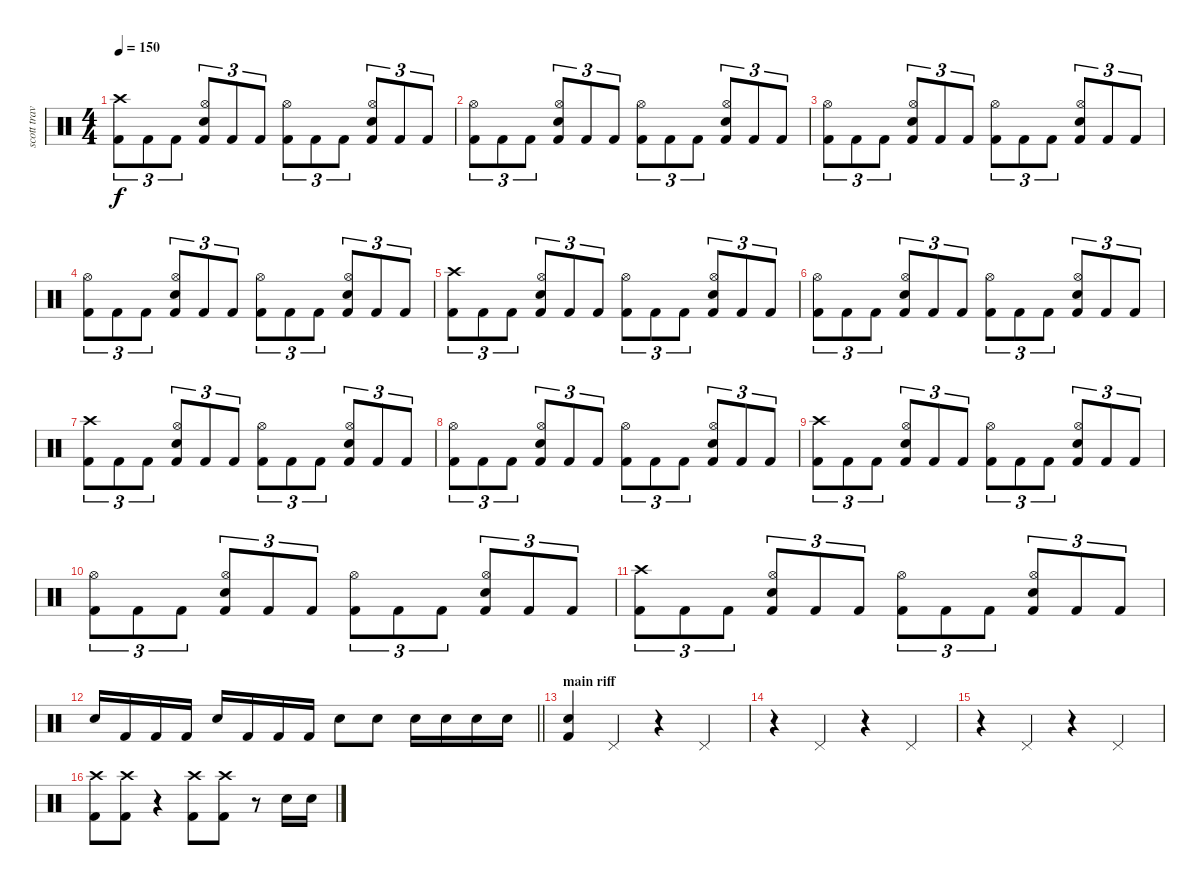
\track ("scott travis" "scott trav") {instrument percussion}
\staff {score}
\articulation defaults
\ts (4 4)
\tempo 150
\clef neutral
\ks c
("Crash high (hit)" "Kick (hit) 2").8{tu (3 2) dy f} "Kick (hit) 2".8{tu (3 2)} "Kick (hit) 2".8{tu (3 2)} ("Hi-Hat (open)" "Snare (hit) 2" "Kick (hit) 2").8{tu (3 2)} "Kick (hit) 2".8{tu (3 2)} "Kick (hit) 2".8{tu (3 2)} ("Hi-Hat (open)" "Kick (hit) 2").8{tu (3 2)} "Kick (hit) 2".8{tu (3 2)} "Kick (hit) 2".8{tu (3 2)} ("Hi-Hat (open)" "Snare (hit) 2" "Kick (hit) 2").8{tu (3 2)} "Kick (hit) 2".8{tu (3 2)} "Kick (hit) 2".8{tu (3 2)} |
("Hi-Hat (open)" "Kick (hit) 2").8{tu (3 2)} "Kick (hit) 2".8{tu (3 2)} "Kick (hit) 2".8{tu (3 2)} ("Hi-Hat (open)" "Snare (hit) 2" "Kick (hit) 2").8{tu (3 2)} "Kick (hit) 2".8{tu (3 2)} "Kick (hit) 2".8{tu (3 2)} ("Hi-Hat (open)" "Kick (hit) 2").8{tu (3 2)} "Kick (hit) 2".8{tu (3 2)} "Kick (hit) 2".8{tu (3 2)} ("Hi-Hat (open)" "Snare (hit) 2" "Kick (hit) 2").8{tu (3 2)} "Kick (hit) 2".8{tu (3 2)} "Kick (hit) 2".8{tu (3 2)} |
("Hi-Hat (open)" "Kick (hit) 2").8{tu (3 2)} "Kick (hit) 2".8{tu (3 2)} "Kick (hit) 2".8{tu (3 2)} ("Hi-Hat (open)" "Snare (hit) 2" "Kick (hit) 2").8{tu (3 2)} "Kick (hit) 2".8{tu (3 2)} "Kick (hit) 2".8{tu (3 2)} ("Hi-Hat (open)" "Kick (hit) 2").8{tu (3 2)} "Kick (hit) 2".8{tu (3 2)} "Kick (hit) 2".8{tu (3 2)} ("Hi-Hat (open)" "Snare (hit) 2" "Kick (hit) 2").8{tu (3 2)} "Kick (hit) 2".8{tu (3 2)} "Kick (hit) 2".8{tu (3 2)} |
("Hi-Hat (open)" "Kick (hit) 2").8{tu (3 2)} "Kick (hit) 2".8{tu (3 2)} "Kick (hit) 2".8{tu (3 2)} ("Hi-Hat (open)" "Snare (hit) 2" "Kick (hit) 2").8{tu (3 2)} "Kick (hit) 2".8{tu (3 2)} "Kick (hit) 2".8{tu (3 2)} ("Hi-Hat (open)" "Kick (hit) 2").8{tu (3 2)} "Kick (hit) 2".8{tu (3 2)} "Kick (hit) 2".8{tu (3 2)} ("Hi-Hat (open)" "Snare (hit) 2" "Kick (hit) 2").8{tu (3 2)} "Kick (hit) 2".8{tu (3 2)} "Kick (hit) 2".8{tu (3 2)} |
("Crash high (hit)" "Kick (hit) 2").8{tu (3 2)} "Kick (hit) 2".8{tu (3 2)} "Kick (hit) 2".8{tu (3 2)} ("Hi-Hat (open)" "Snare (hit) 2" "Kick (hit) 2").8{tu (3 2)} "Kick (hit) 2".8{tu (3 2)} "Kick (hit) 2".8{tu (3 2)} ("Hi-Hat (open)" "Kick (hit) 2").8{tu (3 2)} "Kick (hit) 2".8{tu (3 2)} "Kick (hit) 2".8{tu (3 2)} ("Hi-Hat (open)" "Snare (hit) 2" "Kick (hit) 2").8{tu (3 2)} "Kick (hit) 2".8{tu (3 2)} "Kick (hit) 2".8{tu (3 2)} |
("Hi-Hat (open)" "Kick (hit) 2").8{tu (3 2)} "Kick (hit) 2".8{tu (3 2)} "Kick (hit) 2".8{tu (3 2)} ("Hi-Hat (open)" "Snare (hit) 2" "Kick (hit) 2").8{tu (3 2)} "Kick (hit) 2".8{tu (3 2)} "Kick (hit) 2".8{tu (3 2)} ("Hi-Hat (open)" "Kick (hit) 2").8{tu (3 2)} "Kick (hit) 2".8{tu (3 2)} "Kick (hit) 2".8{tu (3 2)} ("Hi-Hat (open)" "Snare (hit) 2" "Kick (hit) 2").8{tu (3 2)} "Kick (hit) 2".8{tu (3 2)} "Kick (hit) 2".8{tu (3 2)} |
("Crash high (hit)" "Kick (hit) 2").8{tu (3 2)} "Kick (hit) 2".8{tu (3 2)} "Kick (hit) 2".8{tu (3 2)} ("Hi-Hat (open)" "Snare (hit) 2" "Kick (hit) 2").8{tu (3 2)} "Kick (hit) 2".8{tu (3 2)} "Kick (hit) 2".8{tu (3 2)} ("Hi-Hat (open)" "Kick (hit) 2").8{tu (3 2)} "Kick (hit) 2".8{tu (3 2)} "Kick (hit) 2".8{tu (3 2)} ("Hi-Hat (open)" "Snare (hit) 2" "Kick (hit) 2").8{tu (3 2)} "Kick (hit) 2".8{tu (3 2)} "Kick (hit) 2".8{tu (3 2)} |
("Hi-Hat (open)" "Kick (hit) 2").8{tu (3 2)} "Kick (hit) 2".8{tu (3 2)} "Kick (hit) 2".8{tu (3 2)} ("Hi-Hat (open)" "Snare (hit) 2" "Kick (hit) 2").8{tu (3 2)} "Kick (hit) 2".8{tu (3 2)} "Kick (hit) 2".8{tu (3 2)} ("Hi-Hat (open)" "Kick (hit) 2").8{tu (3 2)} "Kick (hit) 2".8{tu (3 2)} "Kick (hit) 2".8{tu (3 2)} ("Hi-Hat (open)" "Snare (hit) 2" "Kick (hit) 2").8{tu (3 2)} "Kick (hit) 2".8{tu (3 2)} "Kick (hit) 2".8{tu (3 2)} |
("Crash high (hit)" "Kick (hit) 2").8{tu (3 2)} "Kick (hit) 2".8{tu (3 2)} "Kick (hit) 2".8{tu (3 2)} ("Hi-Hat (open)" "Snare (hit) 2" "Kick (hit) 2").8{tu (3 2)} "Kick (hit) 2".8{tu (3 2)} "Kick (hit) 2".8{tu (3 2)} ("Hi-Hat (open)" "Kick (hit) 2").8{tu (3 2)} "Kick (hit) 2".8{tu (3 2)} "Kick (hit) 2".8{tu (3 2)} ("Hi-Hat (open)" "Snare (hit) 2" "Kick (hit) 2").8{tu (3 2)} "Kick (hit) 2".8{tu (3 2)} "Kick (hit) 2".8{tu (3 2)} |
("Hi-Hat (open)" "Kick (hit) 2").8{tu (3 2)} "Kick (hit) 2".8{tu (3 2)} "Kick (hit) 2".8{tu (3 2)} ("Hi-Hat (open)" "Snare (hit) 2" "Kick (hit) 2").8{tu (3 2)} "Kick (hit) 2".8{tu (3 2)} "Kick (hit) 2".8{tu (3 2)} ("Hi-Hat (open)" "Kick (hit) 2").8{tu (3 2)} "Kick (hit) 2".8{tu (3 2)} "Kick (hit) 2".8{tu (3 2)} ("Hi-Hat (open)" "Snare (hit) 2" "Kick (hit) 2").8{tu (3 2)} "Kick (hit) 2".8{tu (3 2)} "Kick (hit) 2".8{tu (3 2)} |
("Crash high (hit)" "Kick (hit) 2").8{tu (3 2)} "Kick (hit) 2".8{tu (3 2)} "Kick (hit) 2".8{tu (3 2)} ("Hi-Hat (open)" "Snare (hit) 2" "Kick (hit) 2").8{tu (3 2)} "Kick (hit) 2".8{tu (3 2)} "Kick (hit) 2".8{tu (3 2)} ("Hi-Hat (open)" "Kick (hit) 2").8{tu (3 2)} "Kick (hit) 2".8{tu (3 2)} "Kick (hit) 2".8{tu (3 2)} ("Hi-Hat (open)" "Snare (hit) 2" "Kick (hit) 2").8{tu (3 2)} "Kick (hit) 2".8{tu (3 2)} "Kick (hit) 2".8{tu (3 2)} |
\barLineRight lightlight "Snare (hit) 2".16 "Kick (hit) 2".16 "Kick (hit) 2".16 "Kick (hit) 2".16 "Snare (hit) 2".16 "Kick (hit) 2".16 "Kick (hit) 2".16 "Kick (hit) 2".16 "Snare (hit) 2".8 "Snare (hit) 2".8 "Snare (hit) 2".16 "Snare (hit) 2".16 "Snare (hit) 2".16 "Snare (hit) 2".16
|
\section ("" "main riff")
("Snare (hit) 2" "Kick (hit) 2").4 "Pedal Hi-Hat (hit)".4 r.4 "Pedal Hi-Hat (hit)".4 |
r.4 "Pedal Hi-Hat (hit)".4 r.4 "Pedal Hi-Hat (hit)".4 |
r.4 "Pedal Hi-Hat (hit)".4 r.4 "Pedal Hi-Hat (hit)".4 |
("Crash high (hit)" "Kick (hit) 2").8 ("Crash high (hit)" "Kick (hit) 2").8 r.4 ("Crash high (hit)" "Kick (hit) 2").8 ("Crash high (hit)" "Kick (hit) 2").8 r.8 "Snare (hit) 2".16 "Snare (hit) 2".16
